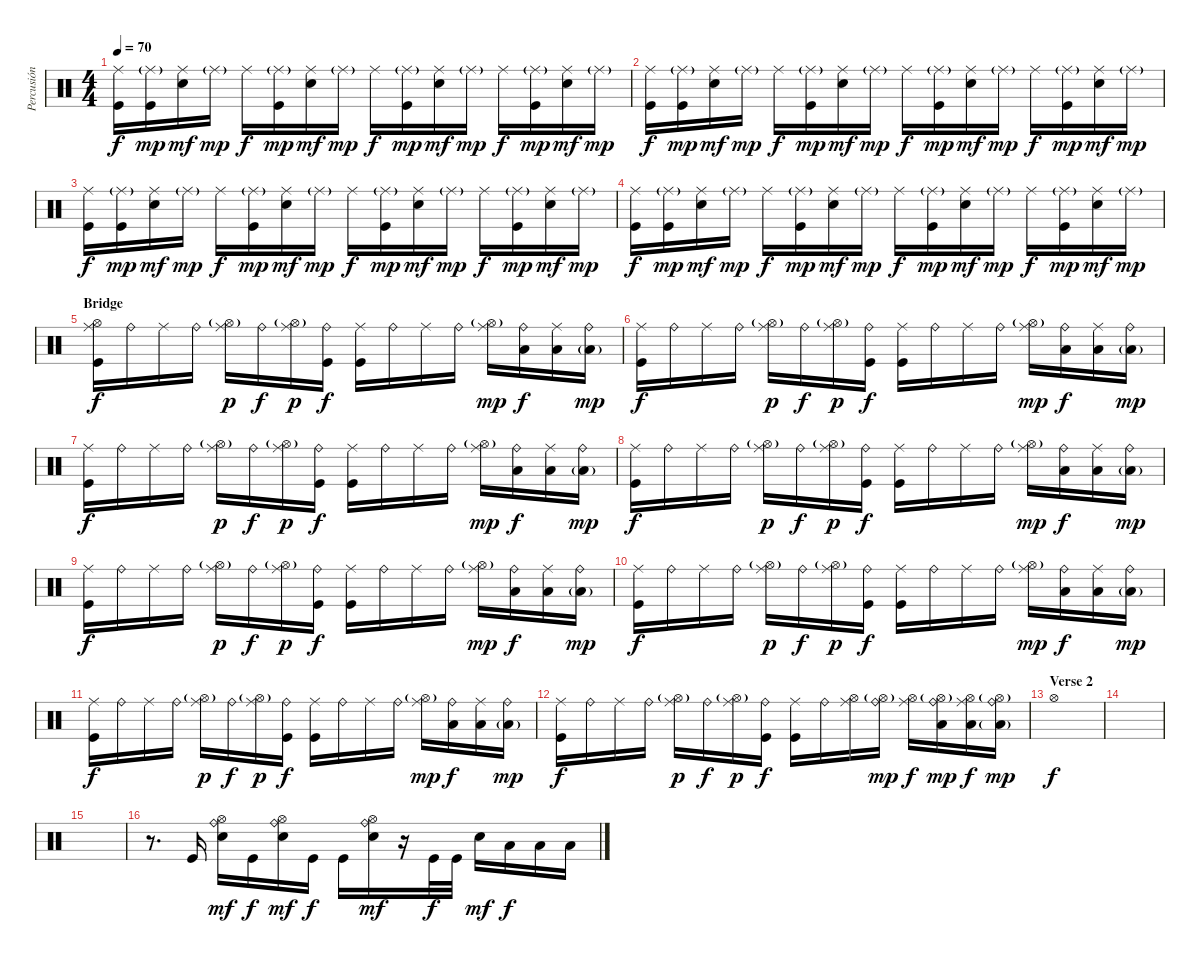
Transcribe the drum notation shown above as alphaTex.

\track ("Percusión" "Percusión") {instrument percussion}
\staff {score}
\articulation defaults
\ts (4 4)
\tempo 70
\clef neutral
\ks c
("Ride (middle)" "Kick (hit)").16{dy f} ("Ride (middle)"{g} "Kick (hit)").16{dy mp} ("Ride (middle)" "Snare (hit) 2").16{dy mf} "Ride (middle)"{g}.16{dy mp} "Ride (middle)".16{dy f} ("Ride (middle)"{g} "Kick (hit)").16{dy mp} ("Ride (middle)" "Snare (hit) 2").16{dy mf} "Ride (middle)"{g}.16{dy mp} "Ride (middle)".16{dy f} ("Ride (middle)"{g} "Kick (hit)").16{dy mp} ("Ride (middle)" "Snare (hit) 2").16{dy mf} "Ride (middle)"{g}.16{dy mp} "Ride (middle)".16{dy f} ("Ride (middle)"{g} "Kick (hit)").16{dy mp} ("Ride (middle)" "Snare (hit) 2").16{dy mf} "Ride (middle)"{g}.16{dy mp} |
("Ride (middle)" "Kick (hit)").16{dy f} ("Ride (middle)"{g} "Kick (hit)").16{dy mp} ("Ride (middle)" "Snare (hit) 2").16{dy mf} "Ride (middle)"{g}.16{dy mp} "Ride (middle)".16{dy f} ("Ride (middle)"{g} "Kick (hit)").16{dy mp} ("Ride (middle)" "Snare (hit) 2").16{dy mf} "Ride (middle)"{g}.16{dy mp} "Ride (middle)".16{dy f} ("Ride (middle)"{g} "Kick (hit)").16{dy mp} ("Ride (middle)" "Snare (hit) 2").16{dy mf} "Ride (middle)"{g}.16{dy mp} "Ride (middle)".16{dy f} ("Ride (middle)"{g} "Kick (hit)").16{dy mp} ("Ride (middle)" "Snare (hit) 2").16{dy mf} "Ride (middle)"{g}.16{dy mp} |
("Ride (middle)" "Kick (hit)").16{dy f} ("Ride (middle)"{g} "Kick (hit)").16{dy mp} ("Ride (middle)" "Snare (hit) 2").16{dy mf} "Ride (middle)"{g}.16{dy mp} "Ride (middle)".16{dy f} ("Ride (middle)"{g} "Kick (hit)").16{dy mp} ("Ride (middle)" "Snare (hit) 2").16{dy mf} "Ride (middle)"{g}.16{dy mp} "Ride (middle)".16{dy f} ("Ride (middle)"{g} "Kick (hit)").16{dy mp} ("Ride (middle)" "Snare (hit) 2").16{dy mf} "Ride (middle)"{g}.16{dy mp} "Ride (middle)".16{dy f} ("Ride (middle)"{g} "Kick (hit)").16{dy mp} ("Ride (middle)" "Snare (hit) 2").16{dy mf} "Ride (middle)"{g}.16{dy mp} |
("Ride (middle)" "Kick (hit)").16{dy f} ("Ride (middle)"{g} "Kick (hit)").16{dy mp} ("Ride (middle)" "Snare (hit) 2").16{dy mf} "Ride (middle)"{g}.16{dy mp} "Ride (middle)".16{dy f} ("Ride (middle)"{g} "Kick (hit)").16{dy mp} ("Ride (middle)" "Snare (hit) 2").16{dy mf} "Ride (middle)"{g}.16{dy mp} "Ride (middle)".16{dy f} ("Ride (middle)"{g} "Kick (hit)").16{dy mp} ("Ride (middle)" "Snare (hit) 2").16{dy mf} "Ride (middle)"{g}.16{dy mp} "Ride (middle)".16{dy f} ("Ride (middle)"{g} "Kick (hit)").16{dy mp} ("Ride (middle)" "Snare (hit) 2").16{dy mf} "Ride (middle)"{g}.16{dy mp} |
\section ("" "Bridge")
("Ride (middle)" "Hi-Hat (open)" "Kick (hit)").16{dy f} "Ride (bell)".16 "Ride (middle)".16 "Ride (bell)".16 ("Ride (middle)" "Hi-Hat (open)"{g}).16{dy p} "Ride (bell)".16{dy f} ("Ride (middle)" "Hi-Hat (open)"{g}).16{dy p} ("Ride (bell)" "Kick (hit)").16{dy f} ("Ride (middle)" "Kick (hit)").16 "Ride (bell)".16 "Ride (middle)".16 "Ride (bell)".16 ("Ride (middle)" "Hi-Hat (open)"{g}).16{dy mp} ("Ride (bell)" "Low Tom (hit)").16{dy f} ("Ride (middle)" "Low Tom (hit)").16 ("Ride (bell)" "Low Floor Tom (hit)"{g}).16{dy mp} |
("Ride (middle)" "Kick (hit)").16{dy f} "Ride (bell)".16 "Ride (middle)".16 "Ride (bell)".16 ("Ride (middle)" "Hi-Hat (open)"{g}).16{dy p} "Ride (bell)".16{dy f} ("Ride (middle)" "Hi-Hat (open)"{g}).16{dy p} ("Ride (bell)" "Kick (hit)").16{dy f} ("Ride (middle)" "Kick (hit)").16 "Ride (bell)".16 "Ride (middle)".16 "Ride (bell)".16 ("Ride (middle)" "Hi-Hat (open)"{g}).16{dy mp} ("Ride (bell)" "Low Tom (hit)").16{dy f} ("Ride (middle)" "Low Tom (hit)").16 ("Ride (bell)" "Low Floor Tom (hit)"{g}).16{dy mp} |
("Ride (middle)" "Kick (hit)").16{dy f} "Ride (bell)".16 "Ride (middle)".16 "Ride (bell)".16 ("Ride (middle)" "Hi-Hat (open)"{g}).16{dy p} "Ride (bell)".16{dy f} ("Ride (middle)" "Hi-Hat (open)"{g}).16{dy p} ("Ride (bell)" "Kick (hit)").16{dy f} ("Ride (middle)" "Kick (hit)").16 "Ride (bell)".16 "Ride (middle)".16 "Ride (bell)".16 ("Ride (middle)" "Hi-Hat (open)"{g}).16{dy mp} ("Ride (bell)" "Low Tom (hit)").16{dy f} ("Ride (middle)" "Low Tom (hit)").16 ("Ride (bell)" "Low Floor Tom (hit)"{g}).16{dy mp} |
("Ride (middle)" "Kick (hit)").16{dy f} "Ride (bell)".16 "Ride (middle)".16 "Ride (bell)".16 ("Ride (middle)" "Hi-Hat (open)"{g}).16{dy p} "Ride (bell)".16{dy f} ("Ride (middle)" "Hi-Hat (open)"{g}).16{dy p} ("Ride (bell)" "Kick (hit)").16{dy f} ("Ride (middle)" "Kick (hit)").16 "Ride (bell)".16 "Ride (middle)".16 "Ride (bell)".16 ("Ride (middle)" "Hi-Hat (open)"{g}).16{dy mp} ("Ride (bell)" "Low Tom (hit)").16{dy f} ("Ride (middle)" "Low Tom (hit)").16 ("Ride (bell)" "Low Floor Tom (hit)"{g}).16{dy mp} |
("Ride (middle)" "Kick (hit)").16{dy f} "Ride (bell)".16 "Ride (middle)".16 "Ride (bell)".16 ("Ride (middle)" "Hi-Hat (open)"{g}).16{dy p} "Ride (bell)".16{dy f} ("Ride (middle)" "Hi-Hat (open)"{g}).16{dy p} ("Ride (bell)" "Kick (hit)").16{dy f} ("Ride (middle)" "Kick (hit)").16 "Ride (bell)".16 "Ride (middle)".16 "Ride (bell)".16 ("Ride (middle)" "Hi-Hat (open)"{g}).16{dy mp} ("Ride (bell)" "Low Tom (hit)").16{dy f} ("Ride (middle)" "Low Tom (hit)").16 ("Ride (bell)" "Low Floor Tom (hit)"{g}).16{dy mp} |
("Ride (middle)" "Kick (hit)").16{dy f} "Ride (bell)".16 "Ride (middle)".16 "Ride (bell)".16 ("Ride (middle)" "Hi-Hat (open)"{g}).16{dy p} "Ride (bell)".16{dy f} ("Ride (middle)" "Hi-Hat (open)"{g}).16{dy p} ("Ride (bell)" "Kick (hit)").16{dy f} ("Ride (middle)" "Kick (hit)").16 "Ride (bell)".16 "Ride (middle)".16 "Ride (bell)".16 ("Ride (middle)" "Hi-Hat (open)"{g}).16{dy mp} ("Ride (bell)" "Low Tom (hit)").16{dy f} ("Ride (middle)" "Low Tom (hit)").16 ("Ride (bell)" "Low Floor Tom (hit)"{g}).16{dy mp} |
("Ride (middle)" "Kick (hit)").16{dy f} "Ride (bell)".16 "Ride (middle)".16 "Ride (bell)".16 ("Ride (middle)" "Hi-Hat (open)"{g}).16{dy p} "Ride (bell)".16{dy f} ("Ride (middle)" "Hi-Hat (open)"{g}).16{dy p} ("Ride (bell)" "Kick (hit)").16{dy f} ("Ride (middle)" "Kick (hit)").16 "Ride (bell)".16 "Ride (middle)".16 "Ride (bell)".16 ("Ride (middle)" "Hi-Hat (open)"{g}).16{dy mp} ("Ride (bell)" "Low Tom (hit)").16{dy f} ("Ride (middle)" "Low Tom (hit)").16 ("Ride (bell)" "Low Floor Tom (hit)"{g}).16{dy mp} |
("Ride (middle)" "Kick (hit)").16{dy f} "Ride (bell)".16 "Ride (middle)".16 "Ride (bell)".16 ("Ride (middle)" "Hi-Hat (open)"{g}).16{dy p} "Ride (bell)".16{dy f} ("Ride (middle)" "Hi-Hat (open)"{g}).16{dy p} ("Ride (bell)" "Kick (hit)").16{dy f} ("Ride (middle)" "Kick (hit)").16 "Ride (bell)".16 ("Ride (middle)" "Hi-Hat (open)").16 ("Ride (bell)" "Hi-Hat (open)"{g}).16{dy mp} ("Ride (middle)" "Hi-Hat (open)").16{dy f} ("Ride (bell)" "Hi-Hat (open)"{g} "Low Tom (hit)").16{dy mp} ("Ride (middle)" "Hi-Hat (open)" "Low Tom (hit)").16{dy f} ("Ride (bell)" "Hi-Hat (open)"{g} "Low Floor Tom (hit)"{g}).16{dy mp} |
\section ("" "Verse 2")
"Hi-Hat (open)".1{dy f} |
|
|
r.8{d} "Kick (hit)".16 ("Ride (bell)" "Hi-Hat (open)" "Snare (hit) 2").16{dy mf} "Kick (hit)".16{dy f} ("Ride (bell)" "Hi-Hat (open)" "Snare (hit) 2").16{dy mf} "Kick (hit)".16{dy f} "Kick (hit)".16 ("Ride (bell)" "Hi-Hat (open)" "Snare (hit) 2").16{dy mf} r.16 "Kick (hit)".32{dy f} "Kick (hit)".32 "Snare (hit) 2".16{dy mf} "Low Tom (hit)".16{dy f} "Low Tom (hit)".16 "Low Tom (hit)".16
